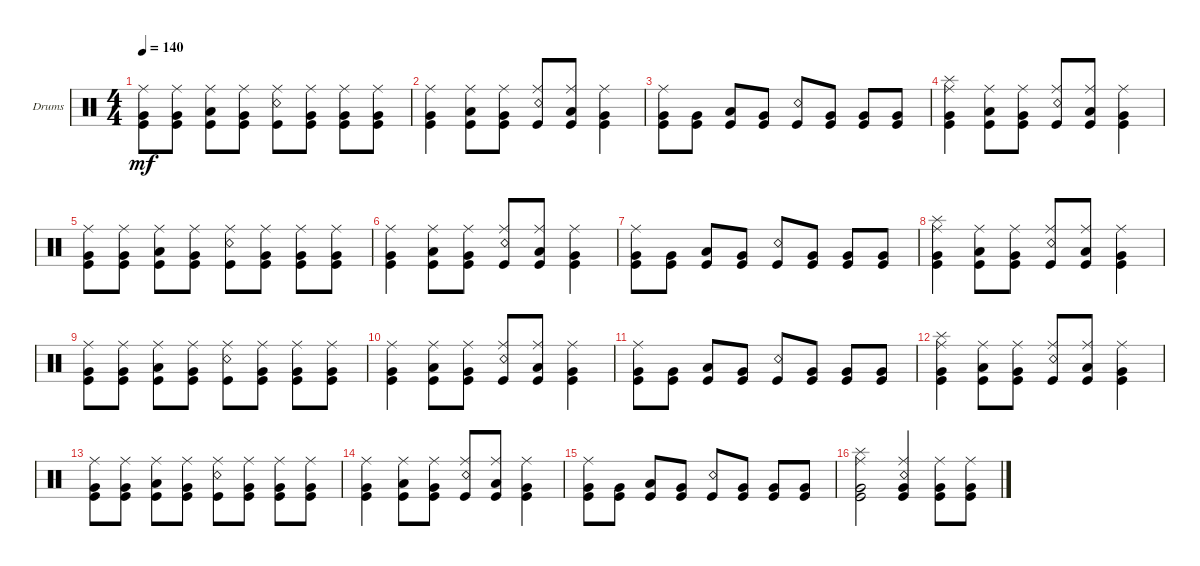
\defaultSystemsLayout 4
\bracketExtendMode groupsimilarinstruments
\firstSystemTrackNameOrientation horizontal
\otherSystemsTrackNameOrientation horizontal
\track ("Drumkit" "Drums") {instrument percussion}
\staff {score}
\articulation defaults
\ts (4 4)
\tempo 140
\clef neutral
\ks c
("Very Low Tom (hit)" "Kick (hit)" "Ride (middle)").8{dy mf} ("Very Low Tom (hit)" "Kick (hit)" "Ride (middle)").8 ("Low Tom (hit)" "Kick (hit)" "Ride (middle)").8 ("Very Low Tom (hit)" "Kick (hit)" "Ride (middle)").8 ("Snare (rim shot)" "Kick (hit)" "Ride (middle)").8 ("Very Low Tom (hit)" "Kick (hit)" "Ride (middle)").8 ("Very Low Tom (hit)" "Kick (hit)" "Ride (middle)").8 ("Very Low Tom (hit)" "Kick (hit)" "Ride (middle)").8 |
("Very Low Tom (hit)" "Kick (hit)" "Ride (middle)").4 ("Low Tom (hit)" "Kick (hit)" "Ride (middle)").8 ("Very Low Tom (hit)" "Kick (hit)" "Ride (middle)").8 ("Snare (rim shot)" "Kick (hit)" "Ride (middle)").8 ("Low Tom (hit)" "Kick (hit)" "Ride (middle)").8 ("Very Low Tom (hit)" "Kick (hit)" "Ride (middle)").4 |
("Very Low Tom (hit)" "Kick (hit)" "Ride (middle)").8 ("Very Low Tom (hit)" "Kick (hit)").8 ("Low Tom (hit)" "Kick (hit)").8 ("Very Low Tom (hit)" "Kick (hit)").8 ("Snare (rim shot)" "Kick (hit)").8 ("Very Low Tom (hit)" "Kick (hit)").8 ("Very Low Tom (hit)" "Kick (hit)").8 ("Very Low Tom (hit)" "Kick (hit)").8 |
("Very Low Tom (hit)" "Kick (hit)" "Ride (middle)" "Splash (hit)").4 ("Low Tom (hit)" "Kick (hit)" "Ride (middle)").8 ("Very Low Tom (hit)" "Kick (hit)" "Ride (middle)").8 ("Snare (rim shot)" "Kick (hit)" "Ride (middle)").8 ("Low Tom (hit)" "Kick (hit)" "Ride (middle)").8 ("Very Low Tom (hit)" "Kick (hit)" "Ride (middle)").4 |
("Very Low Tom (hit)" "Kick (hit)" "Ride (middle)").8 ("Very Low Tom (hit)" "Kick (hit)" "Ride (middle)").8 ("Low Tom (hit)" "Kick (hit)" "Ride (middle)").8 ("Very Low Tom (hit)" "Kick (hit)" "Ride (middle)").8 ("Snare (rim shot)" "Kick (hit)" "Ride (middle)").8 ("Very Low Tom (hit)" "Kick (hit)" "Ride (middle)").8 ("Very Low Tom (hit)" "Kick (hit)" "Ride (middle)").8 ("Very Low Tom (hit)" "Kick (hit)" "Ride (middle)").8 |
("Very Low Tom (hit)" "Kick (hit)" "Ride (middle)").4 ("Low Tom (hit)" "Kick (hit)" "Ride (middle)").8 ("Very Low Tom (hit)" "Kick (hit)" "Ride (middle)").8 ("Snare (rim shot)" "Kick (hit)" "Ride (middle)").8 ("Low Tom (hit)" "Kick (hit)" "Ride (middle)").8 ("Very Low Tom (hit)" "Kick (hit)" "Ride (middle)").4 |
("Very Low Tom (hit)" "Kick (hit)" "Ride (middle)").8 ("Very Low Tom (hit)" "Kick (hit)").8 ("Low Tom (hit)" "Kick (hit)").8 ("Very Low Tom (hit)" "Kick (hit)").8 ("Snare (rim shot)" "Kick (hit)").8 ("Very Low Tom (hit)" "Kick (hit)").8 ("Very Low Tom (hit)" "Kick (hit)").8 ("Very Low Tom (hit)" "Kick (hit)").8 |
("Very Low Tom (hit)" "Kick (hit)" "Ride (middle)" "Splash (hit)").4 ("Low Tom (hit)" "Kick (hit)" "Ride (middle)").8 ("Very Low Tom (hit)" "Kick (hit)" "Ride (middle)").8 ("Snare (rim shot)" "Kick (hit)" "Ride (middle)").8 ("Low Tom (hit)" "Kick (hit)" "Ride (middle)").8 ("Very Low Tom (hit)" "Kick (hit)" "Ride (middle)").4 |
("Very Low Tom (hit)" "Kick (hit)" "Ride (middle)").8 ("Very Low Tom (hit)" "Kick (hit)" "Ride (middle)").8 ("Low Tom (hit)" "Kick (hit)" "Ride (middle)").8 ("Very Low Tom (hit)" "Kick (hit)" "Ride (middle)").8 ("Snare (rim shot)" "Kick (hit)" "Ride (middle)").8 ("Very Low Tom (hit)" "Kick (hit)" "Ride (middle)").8 ("Very Low Tom (hit)" "Kick (hit)" "Ride (middle)").8 ("Very Low Tom (hit)" "Kick (hit)" "Ride (middle)").8 |
("Very Low Tom (hit)" "Kick (hit)" "Ride (middle)").4 ("Low Tom (hit)" "Kick (hit)" "Ride (middle)").8 ("Very Low Tom (hit)" "Kick (hit)" "Ride (middle)").8 ("Snare (rim shot)" "Kick (hit)" "Ride (middle)").8 ("Low Tom (hit)" "Kick (hit)" "Ride (middle)").8 ("Very Low Tom (hit)" "Kick (hit)" "Ride (middle)").4 |
("Very Low Tom (hit)" "Kick (hit)" "Ride (middle)").8 ("Very Low Tom (hit)" "Kick (hit)").8 ("Low Tom (hit)" "Kick (hit)").8 ("Very Low Tom (hit)" "Kick (hit)").8 ("Snare (rim shot)" "Kick (hit)").8 ("Very Low Tom (hit)" "Kick (hit)").8 ("Very Low Tom (hit)" "Kick (hit)").8 ("Very Low Tom (hit)" "Kick (hit)").8 |
("Very Low Tom (hit)" "Kick (hit)" "Ride (middle)" "Splash (hit)").4 ("Low Tom (hit)" "Kick (hit)" "Ride (middle)").8 ("Very Low Tom (hit)" "Kick (hit)" "Ride (middle)").8 ("Snare (rim shot)" "Kick (hit)" "Ride (middle)").8 ("Low Tom (hit)" "Kick (hit)" "Ride (middle)").8 ("Very Low Tom (hit)" "Kick (hit)" "Ride (middle)").4 |
("Very Low Tom (hit)" "Kick (hit)" "Ride (middle)").8 ("Very Low Tom (hit)" "Kick (hit)" "Ride (middle)").8 ("Low Tom (hit)" "Kick (hit)" "Ride (middle)").8 ("Very Low Tom (hit)" "Kick (hit)" "Ride (middle)").8 ("Snare (rim shot)" "Kick (hit)" "Ride (middle)").8 ("Very Low Tom (hit)" "Kick (hit)" "Ride (middle)").8 ("Very Low Tom (hit)" "Kick (hit)" "Ride (middle)").8 ("Very Low Tom (hit)" "Kick (hit)" "Ride (middle)").8 |
("Very Low Tom (hit)" "Kick (hit)" "Ride (middle)").4 ("Low Tom (hit)" "Kick (hit)" "Ride (middle)").8 ("Very Low Tom (hit)" "Kick (hit)" "Ride (middle)").8 ("Snare (rim shot)" "Kick (hit)" "Ride (middle)").8 ("Low Tom (hit)" "Kick (hit)" "Ride (middle)").8 ("Very Low Tom (hit)" "Kick (hit)" "Ride (middle)").4 |
("Very Low Tom (hit)" "Kick (hit)" "Ride (middle)").8 ("Very Low Tom (hit)" "Kick (hit)").8 ("Low Tom (hit)" "Kick (hit)").8 ("Very Low Tom (hit)" "Kick (hit)").8 ("Snare (rim shot)" "Kick (hit)").8 ("Very Low Tom (hit)" "Kick (hit)").8 ("Very Low Tom (hit)" "Kick (hit)").8 ("Very Low Tom (hit)" "Kick (hit)").8 |
("Splash (hit)" "Very Low Tom (hit)" "Kick (hit)" "Ride (middle)").2 ("Snare (rim shot)" "Very Low Tom (hit)" "Kick (hit)" "Ride (middle)").4 ("Very Low Tom (hit)" "Kick (hit)" "Ride (middle)").8 ("Very Low Tom (hit)" "Kick (hit)" "Ride (middle)").8
